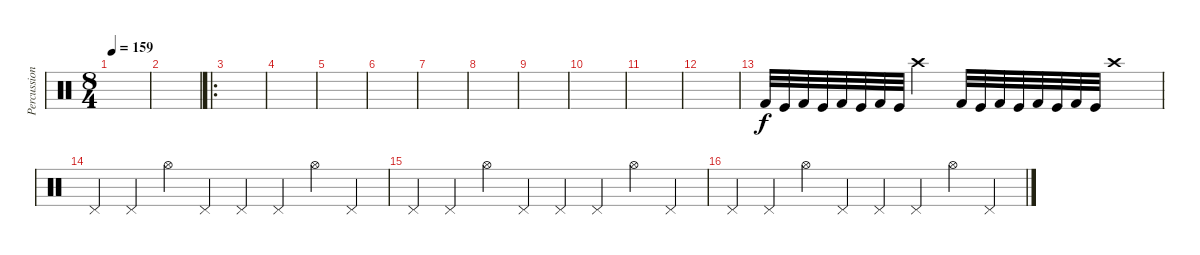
\track ("Percussion" "Percussion") {instrument percussion}
\staff {score}
\articulation defaults
\ts (8 4)
\tempo 159
\clef neutral
\ks c
|
|
\ro
|
|
|
|
|
|
|
|
|
|
"Kick (hit) 2".32 "Kick (hit)".32 "Kick (hit) 2".32 "Kick (hit)".32 "Kick (hit) 2".32 "Kick (hit)".32 "Kick (hit) 2".32 "Kick (hit)".32 "Crash high (hit)".2 "Kick (hit) 2".32 "Kick (hit)".32 "Kick (hit) 2".32 "Kick (hit)".32 "Kick (hit) 2".32 "Kick (hit)".32 "Kick (hit) 2".32 "Kick (hit)".32 "Crash high (hit)".1 |
"Pedal Hi-Hat (hit)".4 "Pedal Hi-Hat (hit)".4 "Hi-Hat (open)".4 "Pedal Hi-Hat (hit)".4 "Pedal Hi-Hat (hit)".4 "Pedal Hi-Hat (hit)".4 "Hi-Hat (open)".4 "Pedal Hi-Hat (hit)".4 |
"Pedal Hi-Hat (hit)".4 "Pedal Hi-Hat (hit)".4 "Hi-Hat (open)".4 "Pedal Hi-Hat (hit)".4 "Pedal Hi-Hat (hit)".4 "Pedal Hi-Hat (hit)".4 "Hi-Hat (open)".4 "Pedal Hi-Hat (hit)".4 |
"Pedal Hi-Hat (hit)".4 "Pedal Hi-Hat (hit)".4 "Hi-Hat (open)".4 "Pedal Hi-Hat (hit)".4 "Pedal Hi-Hat (hit)".4 "Pedal Hi-Hat (hit)".4 "Hi-Hat (open)".4 "Pedal Hi-Hat (hit)".4
